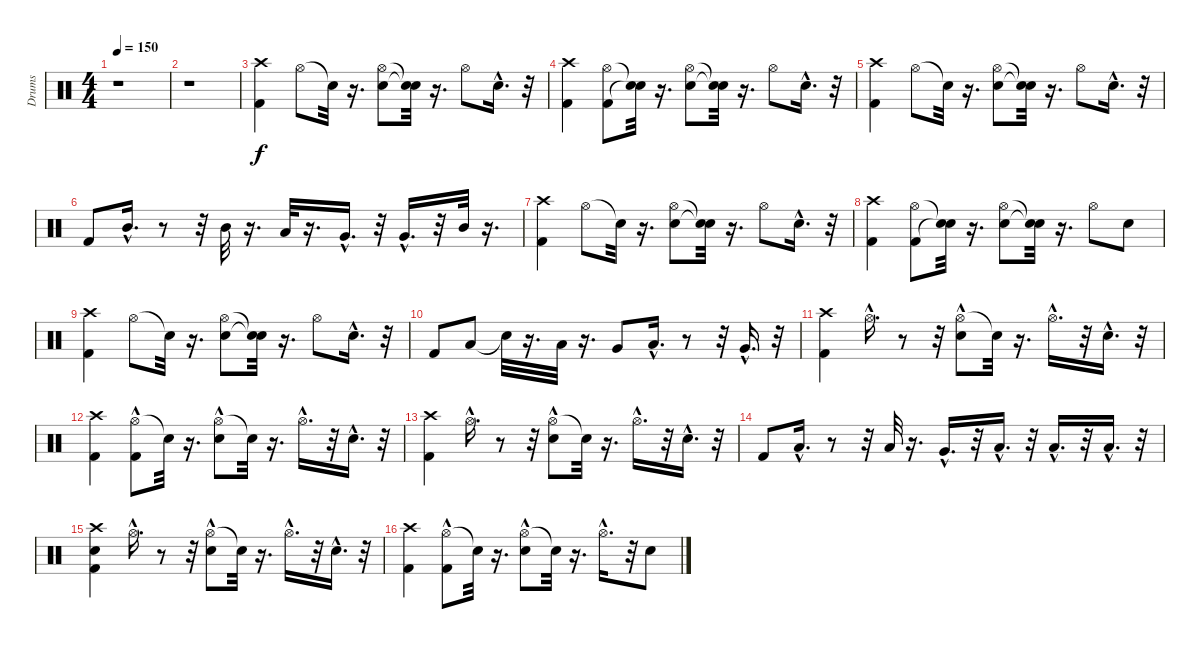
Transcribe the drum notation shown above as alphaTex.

\track ("Drums" "Drums") {instrument percussion}
\staff {score}
\articulation defaults
\ts (4 4)
\tempo 150
\clef neutral
\ks c
r.1{dy f} |
r.1 |
("Crash high (hit)" "Kick (hit) 2").4 "Hi-Hat (open)".8 "Snare (hit)"{t}.32 r.16{d} ("Hi-Hat (open)" "Snare (hit) 2").8 ("Snare (hit)"{t} "Snare (hit)"{t}).32 r.16{d} "Hi-Hat (open)".8 "Snare (hit) 2"{hac}.16{d} r.32 |
("Crash high (hit)" "Kick (hit) 2").4 ("Hi-Hat (open)" "Kick (hit) 2").8 ("Snare (hit)"{t} "Snare (hit)"{t}).32 r.16{d} ("Hi-Hat (open)" "Snare (hit) 2").8 ("Snare (hit)"{t} "Snare (hit)"{t}).32 r.16{d} "Hi-Hat (open)".8 "Snare (hit) 2"{hac}.16{d} r.32 |
("Crash high (hit)" "Kick (hit) 2").4 "Hi-Hat (open)".8 "Snare (hit)"{t}.32 r.16{d} ("Hi-Hat (open)" "Snare (hit) 2").8 ("Snare (hit)"{t} "Snare (hit)"{t}).32 r.16{d} "Hi-Hat (open)".8 "Snare (hit) 2"{hac}.16{d} r.32 |
"Kick (hit) 2".8 "Mid Tom (hit)"{hac}.16{d} r.8 r.32 "Mid Tom (hit)".32 r.16{d} "Low Tom (hit)".32 r.16{d} "Very Low Tom (hit)"{hac}.16{d} r.32 "Very Low Tom (hit)"{hac}.16{d} r.32 "Mid Tom (hit)".32 r.16{d} |
("Crash high (hit)" "Kick (hit) 2").4 "Hi-Hat (open)".8 "Snare (hit)"{t}.32 r.16{d} ("Hi-Hat (open)" "Snare (hit) 2").8 ("Snare (hit)"{t} "Snare (hit)"{t}).32 r.16{d} "Hi-Hat (open)".8 "Snare (hit) 2"{hac}.16{d} r.32 |
("Kick (hit) 2" "Crash high (hit)").4 ("Hi-Hat (open)" "Kick (hit) 2").8 ("Snare (hit)"{t} "Snare (hit)"{t}).32 r.16{d} ("Hi-Hat (open)" "Snare (hit) 2").8 ("Snare (hit)"{t} "Snare (hit)"{t}).32 r.16{d} "Hi-Hat (open)".8 "Snare (hit) 2".8 |
("Kick (hit) 2" "Crash high (hit)").4 "Hi-Hat (open)".8 "Snare (hit)"{t}.32 r.16{d} ("Hi-Hat (open)" "Snare (hit) 2").8 ("Snare (hit)"{t} "Snare (hit)"{t}).32 r.16{d} "Hi-Hat (open)".8 "Snare (hit) 2"{hac}.16{d} r.32 |
"Kick (hit) 2".8 "Low Tom (hit)".8 "Snare (hit)"{t}.32 r.16{d} "Low Tom (hit)".32 r.16{d} "Very Low Tom (hit)".8 "Low Tom (hit)"{hac}.16{d} r.8 r.32 "Very Low Tom (hit)"{hac}.16{d} r.32 |
("Crash high (hit)" "Kick (hit) 2").4 "Hi-Hat (open)"{hac}.16{d} r.8 r.32 ("Hi-Hat (open)"{hac} "Snare (hit) 2").8 "Snare (hit)"{t}.32 r.16{d} "Hi-Hat (open)"{hac}.16{d} r.32 "Snare (hit) 2"{hac}.16{d} r.32 |
("Kick (hit) 2" "Crash high (hit)").4 ("Hi-Hat (open)"{hac} "Kick (hit) 2").8 "Snare (hit)"{t}.32 r.16{d} ("Hi-Hat (open)"{hac} "Snare (hit) 2").8 "Snare (hit)"{t}.32 r.16{d} "Hi-Hat (open)"{hac}.16{d} r.32 "Snare (hit) 2"{hac}.16{d} r.32 |
("Crash high (hit)" "Kick (hit) 2").4 "Hi-Hat (open)"{hac}.16{d} r.8 r.32 ("Hi-Hat (open)"{hac} "Snare (hit) 2").8 "Snare (hit)"{t}.32 r.16{d} "Hi-Hat (open)"{hac}.16{d} r.32 "Snare (hit) 2"{hac}.16{d} r.32 |
"Kick (hit) 2".8 "Low Tom (hit)"{hac}.16{d} r.8 r.32 "Low Tom (hit)".32 r.16{d} "Very Low Tom (hit)"{hac}.16{d} r.32 "Low Floor Tom (hit)"{hac}.16{d} r.32 "Low Floor Tom (hit)"{hac}.16{d} r.32 "Low Tom (hit)"{hac}.16{d} r.32 |
("Snare (hit) 2" "Crash high (hit)" "Kick (hit) 2").4 "Hi-Hat (open)"{hac}.16{d} r.8 r.32 ("Hi-Hat (open)"{hac} "Snare (hit) 2").8 "Snare (hit)"{t}.32 r.16{d} "Hi-Hat (open)"{hac}.16{d} r.32 "Snare (hit) 2"{hac}.16{d} r.32 |
("Kick (hit) 2" "Crash high (hit)").4 ("Hi-Hat (open)"{hac} "Kick (hit) 2").8 "Snare (hit)"{t}.32 r.16{d} ("Hi-Hat (open)"{hac} "Snare (hit) 2").8 "Snare (hit)"{t}.32 r.16{d} "Hi-Hat (open)"{hac}.16{d} r.32 "Snare (hit) 2".8
